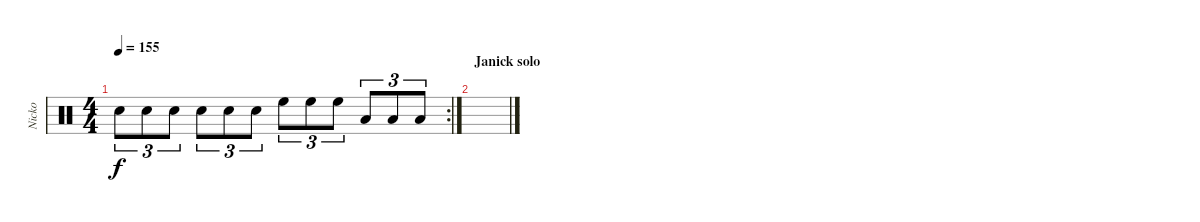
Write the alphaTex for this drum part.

\track ("Nicko" "Nicko") {instrument percussion}
\staff {score}
\articulation defaults
\rc 2
\ts (4 4)
\tempo 155
\clef neutral
\ks c "Snare (hit) 2".8{tu (3 2) dy f} "Snare (hit) 2".8{tu (3 2)} "Snare (hit) 2".8{tu (3 2)} "Snare (hit) 2".8{tu (3 2)} "Snare (hit) 2".8{tu (3 2)} "Snare (hit) 2".8{tu (3 2)} "High Floor Tom (hit)".8{tu (3 2)} "High Floor Tom (hit)".8{tu (3 2)} "High Floor Tom (hit)".8{tu (3 2)} "Low Tom (hit)".8{tu (3 2)} "Low Tom (hit)".8{tu (3 2)} "Low Tom (hit)".8{tu (3 2)}
|
\section ("" "Janick solo")
